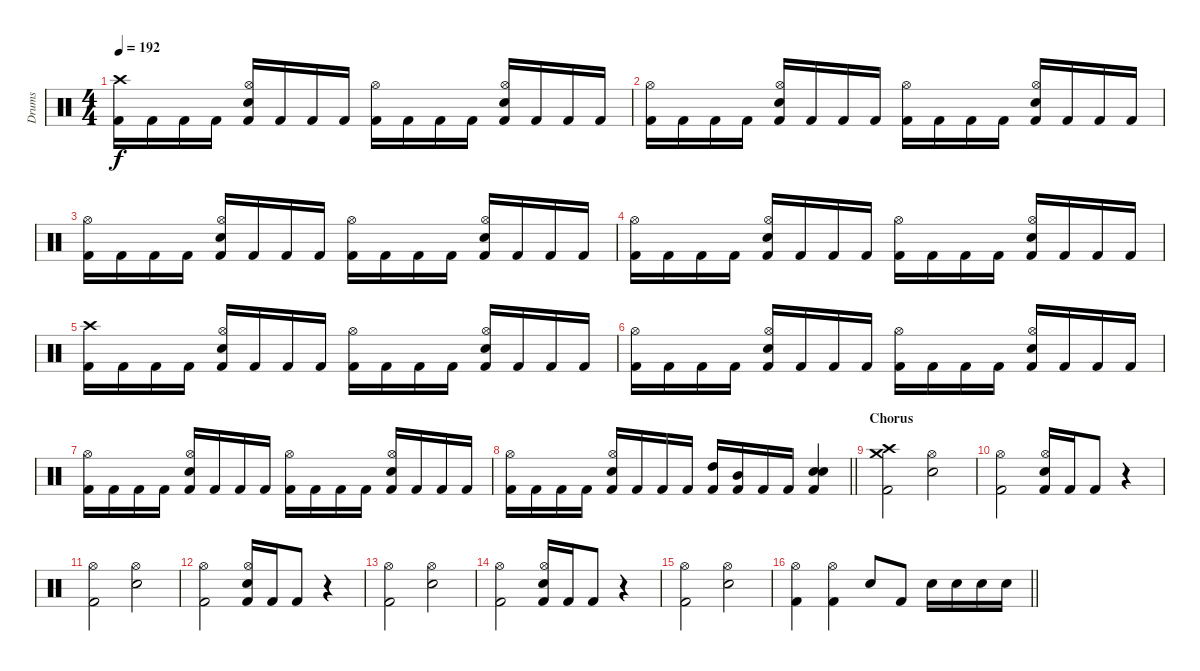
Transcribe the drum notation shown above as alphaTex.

\track ("Drums" "Drums") {instrument percussion}
\staff {score}
\articulation defaults
\ts (4 4)
\tempo 192
\clef neutral
\ks c
("Crash high (hit)" "Kick (hit) 2").16{dy f} "Kick (hit) 2".16 "Kick (hit) 2".16 "Kick (hit) 2".16 ("Hi-Hat (open)" "Electric Snare (hit)" "Kick (hit) 2").16 "Kick (hit) 2".16 "Kick (hit) 2".16 "Kick (hit) 2".16 ("Hi-Hat (open)" "Kick (hit) 2").16 "Kick (hit) 2".16 "Kick (hit) 2".16 "Kick (hit) 2".16 ("Hi-Hat (open)" "Electric Snare (hit)" "Kick (hit) 2").16 "Kick (hit) 2".16 "Kick (hit) 2".16 "Kick (hit) 2".16 |
("Hi-Hat (open)" "Kick (hit) 2").16 "Kick (hit) 2".16 "Kick (hit) 2".16 "Kick (hit) 2".16 ("Hi-Hat (open)" "Electric Snare (hit)" "Kick (hit) 2").16 "Kick (hit) 2".16 "Kick (hit) 2".16 "Kick (hit) 2".16 ("Hi-Hat (open)" "Kick (hit) 2").16 "Kick (hit) 2".16 "Kick (hit) 2".16 "Kick (hit) 2".16 ("Hi-Hat (open)" "Electric Snare (hit)" "Kick (hit) 2").16 "Kick (hit) 2".16 "Kick (hit) 2".16 "Kick (hit) 2".16 |
("Hi-Hat (open)" "Kick (hit) 2").16 "Kick (hit) 2".16 "Kick (hit) 2".16 "Kick (hit) 2".16 ("Hi-Hat (open)" "Electric Snare (hit)" "Kick (hit) 2").16 "Kick (hit) 2".16 "Kick (hit) 2".16 "Kick (hit) 2".16 ("Hi-Hat (open)" "Kick (hit) 2").16 "Kick (hit) 2".16 "Kick (hit) 2".16 "Kick (hit) 2".16 ("Hi-Hat (open)" "Electric Snare (hit)" "Kick (hit) 2").16 "Kick (hit) 2".16 "Kick (hit) 2".16 "Kick (hit) 2".16 |
("Hi-Hat (open)" "Kick (hit) 2").16 "Kick (hit) 2".16 "Kick (hit) 2".16 "Kick (hit) 2".16 ("Hi-Hat (open)" "Electric Snare (hit)" "Kick (hit) 2").16 "Kick (hit) 2".16 "Kick (hit) 2".16 "Kick (hit) 2".16 ("Hi-Hat (open)" "Kick (hit) 2").16 "Kick (hit) 2".16 "Kick (hit) 2".16 "Kick (hit) 2".16 ("Hi-Hat (open)" "Electric Snare (hit)" "Kick (hit) 2").16 "Kick (hit) 2".16 "Kick (hit) 2".16 "Kick (hit) 2".16 |
("Crash high (hit)" "Kick (hit) 2").16 "Kick (hit) 2".16 "Kick (hit) 2".16 "Kick (hit) 2".16 ("Hi-Hat (open)" "Electric Snare (hit)" "Kick (hit) 2").16 "Kick (hit) 2".16 "Kick (hit) 2".16 "Kick (hit) 2".16 ("Hi-Hat (open)" "Kick (hit) 2").16 "Kick (hit) 2".16 "Kick (hit) 2".16 "Kick (hit) 2".16 ("Hi-Hat (open)" "Electric Snare (hit)" "Kick (hit) 2").16 "Kick (hit) 2".16 "Kick (hit) 2".16 "Kick (hit) 2".16 |
("Hi-Hat (open)" "Kick (hit) 2").16 "Kick (hit) 2".16 "Kick (hit) 2".16 "Kick (hit) 2".16 ("Hi-Hat (open)" "Electric Snare (hit)" "Kick (hit) 2").16 "Kick (hit) 2".16 "Kick (hit) 2".16 "Kick (hit) 2".16 ("Hi-Hat (open)" "Kick (hit) 2").16 "Kick (hit) 2".16 "Kick (hit) 2".16 "Kick (hit) 2".16 ("Hi-Hat (open)" "Electric Snare (hit)" "Kick (hit) 2").16 "Kick (hit) 2".16 "Kick (hit) 2".16 "Kick (hit) 2".16 |
("Hi-Hat (open)" "Kick (hit) 2").16 "Kick (hit) 2".16 "Kick (hit) 2".16 "Kick (hit) 2".16 ("Hi-Hat (open)" "Electric Snare (hit)" "Kick (hit) 2").16 "Kick (hit) 2".16 "Kick (hit) 2".16 "Kick (hit) 2".16 ("Hi-Hat (open)" "Kick (hit) 2").16 "Kick (hit) 2".16 "Kick (hit) 2".16 "Kick (hit) 2".16 ("Hi-Hat (open)" "Electric Snare (hit)" "Kick (hit) 2").16 "Kick (hit) 2".16 "Kick (hit) 2".16 "Kick (hit) 2".16 |
\barLineRight lightlight
("Hi-Hat (open)" "Kick (hit) 2").16 "Kick (hit) 2".16 "Kick (hit) 2".16 "Kick (hit) 2".16 ("Hi-Hat (open)" "Electric Snare (hit)" "Kick (hit) 2").16 "Kick (hit) 2".16 "Kick (hit) 2".16 "Kick (hit) 2".16 ("High Tom (hit)" "Kick (hit) 2").16 ("Mid Tom (hit)" "Kick (hit) 2").16 "Kick (hit) 2".16 "Kick (hit) 2".16 ("Electric Snare (hit)" "Electric Snare (hit)" "Kick (hit) 2").4 |
\section ("" "Chorus")
("Crash medium (hit)" "Crash high (hit)" "Kick (hit) 2").2 ("Hi-Hat (open)" "Electric Snare (hit)").2 |
("Hi-Hat (open)" "Kick (hit) 2").2 ("Hi-Hat (open)" "Electric Snare (hit)" "Kick (hit) 2").16 "Kick (hit) 2".16 "Kick (hit) 2".8 r.4 |
("Hi-Hat (open)" "Kick (hit) 2").2 ("Hi-Hat (open)" "Electric Snare (hit)").2 |
("Hi-Hat (open)" "Kick (hit) 2").2 ("Hi-Hat (open)" "Electric Snare (hit)" "Kick (hit) 2").16 "Kick (hit) 2".16 "Kick (hit) 2".8 r.4 |
("Hi-Hat (open)" "Kick (hit) 2").2 ("Hi-Hat (open)" "Electric Snare (hit)").2 |
("Hi-Hat (open)" "Kick (hit) 2").2 ("Hi-Hat (open)" "Electric Snare (hit)" "Kick (hit) 2").16 "Kick (hit) 2".16 "Kick (hit) 2".8 r.4 |
("Hi-Hat (open)" "Kick (hit) 2").2 ("Hi-Hat (open)" "Electric Snare (hit)").2 |
\barLineRight lightlight
("Hi-Hat (open)" "Kick (hit) 2").4 ("Hi-Hat (open)" "Kick (hit) 2").4 "Electric Snare (hit)".8 "Kick (hit) 2".8 "Electric Snare (hit)".16 "Electric Snare (hit)".16 "Electric Snare (hit)".16 "Electric Snare (hit)".16
